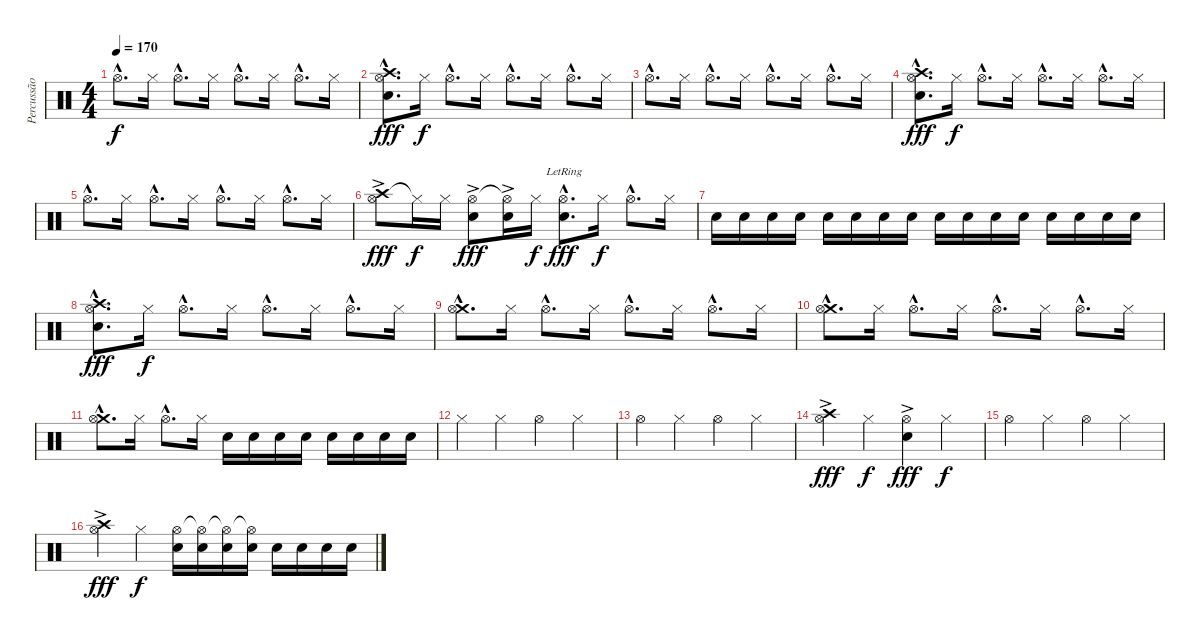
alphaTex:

\track ("Percussão" "Percussão") {instrument percussion}
\staff {score}
\articulation defaults
\ts (4 4)
\tempo 170
\clef neutral
\ks c "Hi-Hat (open)"{hac}.8{d dy f} "Hi-Hat (closed)".16 "Hi-Hat (open)"{hac}.8{d} "Hi-Hat (closed)".16 "Hi-Hat (open)"{hac}.8{d} "Hi-Hat (closed)".16 "Hi-Hat (open)"{hac}.8{d} "Hi-Hat (closed)".16
|
("Crash high (hit)"{hac} "Snare (hit) 2"{hac} "Hi-Hat (open)"{hac}).8{d dy fff} "Hi-Hat (closed)".16{dy f} "Hi-Hat (open)"{hac}.8{d} "Hi-Hat (closed)".16 "Hi-Hat (open)"{hac}.8{d} "Hi-Hat (closed)".16 "Hi-Hat (open)"{hac}.8{d} "Hi-Hat (closed)".16 |
"Hi-Hat (open)"{hac}.8{d} "Hi-Hat (closed)".16 "Hi-Hat (open)"{hac}.8{d} "Hi-Hat (closed)".16 "Hi-Hat (open)"{hac}.8{d} "Hi-Hat (closed)".16 "Hi-Hat (open)"{hac}.8{d} "Hi-Hat (closed)".16 |
("Crash high (hit)"{hac} "Snare (hit) 2"{hac} "Hi-Hat (open)"{hac}).8{d dy fff} "Hi-Hat (closed)".16{dy f} "Hi-Hat (open)"{hac}.8{d} "Hi-Hat (closed)".16 "Hi-Hat (open)"{hac}.8{d} "Hi-Hat (closed)".16 "Hi-Hat (open)"{hac}.8{d} "Hi-Hat (closed)".16 |
"Hi-Hat (open)"{hac}.8{d} "Hi-Hat (closed)".16 "Hi-Hat (open)"{hac}.8{d} "Hi-Hat (closed)".16 "Hi-Hat (open)"{hac}.8{d} "Hi-Hat (closed)".16 "Hi-Hat (open)"{hac}.8{d} "Hi-Hat (closed)".16 |
("Crash high (hit)"{ac} "Hi-Hat (open)").8{dy fff} "Hi-Hat (closed)"{t}.16{dy f} "Hi-Hat (closed)".16 ("Snare (hit) 2"{ac} "Hi-Hat (open)").8{dy fff} ("Snare (hit) 2"{ac} "Hi-Hat (open)"{t}).16 "Hi-Hat (closed)".16{dy f} ("Snare (hit) 2"{hac lr} "Hi-Hat (open)"{hac}).8{d dy fff} "Hi-Hat (closed)".16{dy f} "Hi-Hat (open)"{hac}.8{d} "Hi-Hat (closed)".16 |
"Snare (hit) 2".16 "Snare (hit) 2".16 "Snare (hit) 2".16 "Snare (hit) 2".16 "Snare (hit) 2".16 "Snare (hit) 2".16 "Snare (hit) 2".16 "Snare (hit) 2".16 "Snare (hit) 2".16 "Snare (hit) 2".16 "Snare (hit) 2".16 "Snare (hit) 2".16 "Snare (hit) 2".16 "Snare (hit) 2".16 "Snare (hit) 2".16 "Snare (hit) 2".16 |
("Crash high (hit)"{hac} "Snare (hit) 2"{hac} "Hi-Hat (open)"{hac}).8{d dy fff} "Hi-Hat (closed)".16{dy f} "Hi-Hat (open)"{hac}.8{d} "Hi-Hat (closed)".16 "Hi-Hat (open)"{hac}.8{d} "Hi-Hat (closed)".16 "Hi-Hat (open)"{hac}.8{d} "Hi-Hat (closed)".16 |
("Crash medium (hit)"{hac} "Hi-Hat (open)"{hac}).8{d} "Hi-Hat (closed)".16 "Hi-Hat (open)"{hac}.8{d} "Hi-Hat (closed)".16 "Hi-Hat (open)"{hac}.8{d} "Hi-Hat (closed)".16 "Hi-Hat (open)"{hac}.8{d} "Hi-Hat (closed)".16 |
("Crash medium (hit)"{hac} "Hi-Hat (open)"{hac}).8{d} "Hi-Hat (closed)".16 "Hi-Hat (open)"{hac}.8{d} "Hi-Hat (closed)".16 "Hi-Hat (open)"{hac}.8{d} "Hi-Hat (closed)".16 "Hi-Hat (open)"{hac}.8{d} "Hi-Hat (closed)".16 |
("Crash medium (hit)"{hac} "Hi-Hat (open)"{hac}).8{d} "Hi-Hat (closed)".16 "Hi-Hat (open)"{hac}.8{d} "Hi-Hat (closed)".16 "Snare (hit) 2".16{volume 15} "Snare (hit) 2".16 "Snare (hit) 2".16 "Snare (hit) 2".16 "Snare (hit) 2".16 "Snare (hit) 2".16 "Snare (hit) 2".16 "Snare (hit) 2".16 |
"Hi-Hat (closed)".4{volume 11} "Hi-Hat (closed)".4 "Hi-Hat (open)".4 "Hi-Hat (closed)".4 |
"Hi-Hat (open)".4 "Hi-Hat (closed)".4 "Hi-Hat (open)".4 "Hi-Hat (closed)".4 |
("Crash high (hit)"{ac} "Hi-Hat (open)").4{dy fff} "Hi-Hat (closed)".4{dy f} ("Snare (hit) 2"{ac} "Hi-Hat (open)").4{dy fff} "Hi-Hat (closed)".4{dy f} |
"Hi-Hat (open)".4 "Hi-Hat (closed)".4 "Hi-Hat (open)".4 "Hi-Hat (closed)".4 |
("Crash high (hit)"{ac} "Hi-Hat (open)").4{dy fff} "Hi-Hat (closed)".4{dy f} ("Hi-Hat (open)" "Snare (hit) 2").16 ("Hi-Hat (open)"{t} "Snare (hit) 2").16 ("Hi-Hat (open)"{t} "Snare (hit) 2").16 ("Hi-Hat (open)"{t} "Snare (hit) 2").16 "Snare (hit) 2".16 "Snare (hit) 2".16 "Snare (hit) 2".16 "Snare (hit) 2".16
